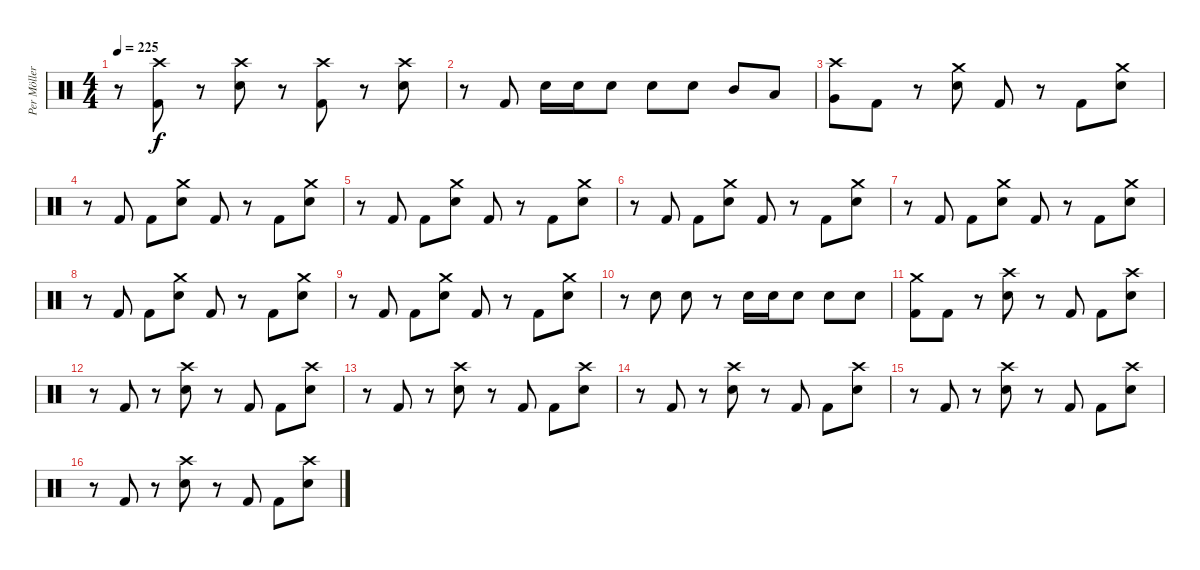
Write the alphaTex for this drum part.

\track ("Per Möller Jensen" "Per Möller") {instrument percussion}
\staff {score}
\articulation defaults
\ts (4 4)
\tempo 225
\clef neutral
\ks c
r.8{dy f} ("Crash high (hit)" "Kick (hit) 2").8 r.8 ("Crash high (hit)" "Snare (hit) 2").8 r.8 ("Crash high (hit)" "Kick (hit) 2").8 r.8 ("Crash high (hit)" "Snare (hit) 2").8 |
r.8 "Kick (hit) 2".8 "Snare (hit) 2".16 "Snare (hit) 2".16 "Snare (hit) 2".8 "Snare (hit) 2".8 "Snare (hit) 2".8 "Mid Tom (hit)".8 "Low Tom (hit)".8 |
("Crash high (hit)" "Very Low Tom (hit)").8 "Kick (hit) 2".8 r.8 ("Crash medium (hit)" "Snare (hit) 2").8 "Kick (hit) 2".8 r.8 "Kick (hit) 2".8 ("Crash medium (hit)" "Snare (hit) 2").8 |
r.8 "Kick (hit) 2".8 "Kick (hit) 2".8 ("Crash medium (hit)" "Snare (hit) 2").8 "Kick (hit) 2".8 r.8 "Kick (hit) 2".8 ("Crash medium (hit)" "Snare (hit) 2").8 |
r.8 "Kick (hit) 2".8 "Kick (hit) 2".8 ("Crash medium (hit)" "Snare (hit) 2").8 "Kick (hit) 2".8 r.8 "Kick (hit) 2".8 ("Crash medium (hit)" "Snare (hit) 2").8 |
r.8 "Kick (hit) 2".8 "Kick (hit) 2".8 ("Crash medium (hit)" "Snare (hit) 2").8 "Kick (hit) 2".8 r.8 "Kick (hit) 2".8 ("Crash medium (hit)" "Snare (hit) 2").8 |
r.8 "Kick (hit) 2".8 "Kick (hit) 2".8 ("Crash medium (hit)" "Snare (hit) 2").8 "Kick (hit) 2".8 r.8 "Kick (hit) 2".8 ("Crash medium (hit)" "Snare (hit) 2").8 |
r.8 "Kick (hit) 2".8 "Kick (hit) 2".8 ("Crash medium (hit)" "Snare (hit) 2").8 "Kick (hit) 2".8 r.8 "Kick (hit) 2".8 ("Crash medium (hit)" "Snare (hit) 2").8 |
r.8 "Kick (hit) 2".8 "Kick (hit) 2".8 ("Crash medium (hit)" "Snare (hit) 2").8 "Kick (hit) 2".8 r.8 "Kick (hit) 2".8 ("Crash medium (hit)" "Snare (hit) 2").8 |
r.8 "Snare (hit) 2".8 "Snare (hit) 2".8 r.8 "Snare (hit) 2".16 "Snare (hit) 2".16 "Snare (hit) 2".8 "Snare (hit) 2".8 "Snare (hit) 2".8 |
("Crash medium (hit)" "Kick (hit) 2").8 "Kick (hit) 2".8 r.8 ("Crash high (hit)" "Snare (hit) 2").8 r.8 "Kick (hit) 2".8 "Kick (hit) 2".8 ("Crash high (hit)" "Snare (hit) 2").8 |
r.8 "Kick (hit) 2".8 r.8 ("Crash high (hit)" "Snare (hit) 2").8 r.8 "Kick (hit) 2".8 "Kick (hit) 2".8 ("Crash high (hit)" "Snare (hit) 2").8 |
r.8 "Kick (hit) 2".8 r.8 ("Crash high (hit)" "Snare (hit) 2").8 r.8 "Kick (hit) 2".8 "Kick (hit) 2".8 ("Crash high (hit)" "Snare (hit) 2").8 |
r.8 "Kick (hit) 2".8 r.8 ("Crash high (hit)" "Snare (hit) 2").8 r.8 "Kick (hit) 2".8 "Kick (hit) 2".8 ("Crash high (hit)" "Snare (hit) 2").8 |
r.8 "Kick (hit) 2".8 r.8 ("Crash high (hit)" "Snare (hit) 2").8 r.8 "Kick (hit) 2".8 "Kick (hit) 2".8 ("Crash high (hit)" "Snare (hit) 2").8 |
r.8 "Kick (hit) 2".8 r.8 ("Crash high (hit)" "Snare (hit) 2").8 r.8 "Kick (hit) 2".8 "Kick (hit) 2".8 ("Crash high (hit)" "Snare (hit) 2").8
